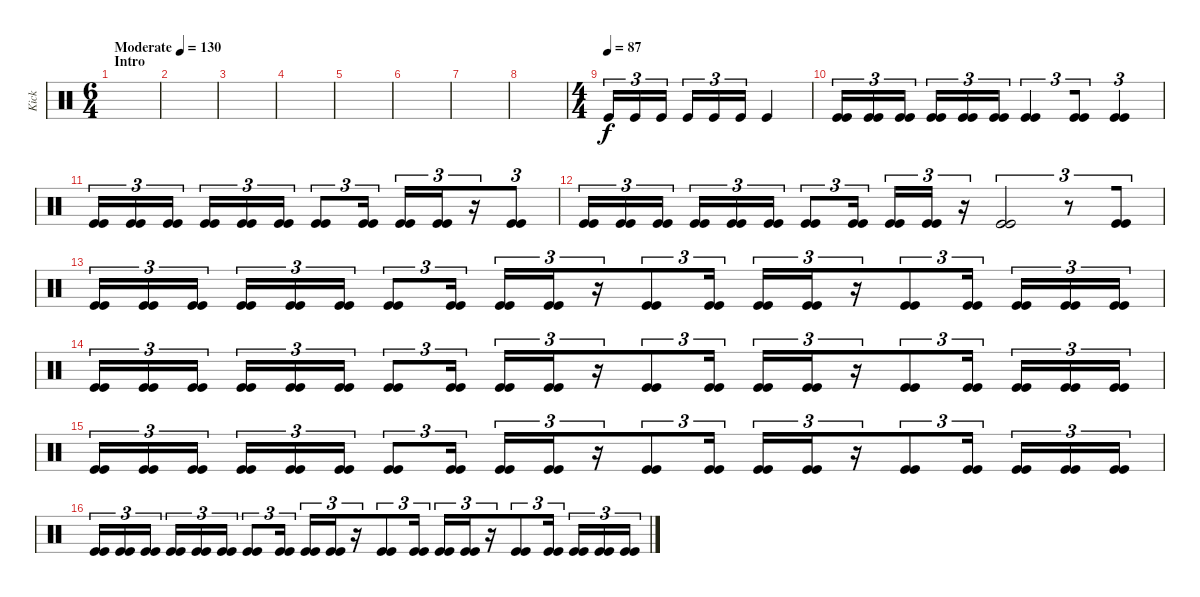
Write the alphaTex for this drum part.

\track ("Kick" "Kick") {instrument percussion bank 158}
\staff {score}
\articulation defaults
\ts (6 4)
\section ("" "Intro")
\tempo (130 "Moderate")
\clef neutral
\ks c
|
|
|
|
|
|
|
|
\ts (4 4)
\tempo (87)
"Kick (hit)".16{tu (3 2)} "Kick (hit)".16{tu (3 2) beam merge} "Kick (hit)".16{tu (3 2) beam splitsecondary} "Kick (hit)".16{tu (3 2)} "Kick (hit)".16{tu (3 2)} "Kick (hit)".16{tu (3 2)} "Kick (hit)".4 |
("Kick (hit)" "Kick (hit)").16{tu (3 2)} ("Kick (hit)" "Kick (hit)").16{tu (3 2) beam merge} ("Kick (hit)" "Kick (hit)").16{tu (3 2) beam splitsecondary} ("Kick (hit)" "Kick (hit)").16{tu (3 2)} ("Kick (hit)" "Kick (hit)").16{tu (3 2)} ("Kick (hit)" "Kick (hit)").16{tu (3 2)} ("Kick (hit)" "Kick (hit)").4{tu (3 2) beam merge} ("Kick (hit)" "Kick (hit)").8{tu (3 2)} ("Kick (hit)" "Kick (hit)").4{tu (3 2)} |
("Kick (hit)" "Kick (hit)").16{tu (3 2)} ("Kick (hit)" "Kick (hit)").16{tu (3 2) beam merge} ("Kick (hit)" "Kick (hit)").16{tu (3 2) beam splitsecondary} ("Kick (hit)" "Kick (hit)").16{tu (3 2)} ("Kick (hit)" "Kick (hit)").16{tu (3 2)} ("Kick (hit)" "Kick (hit)").16{tu (3 2)} ("Kick (hit)" "Kick (hit)").8{tu (3 2) beam merge} ("Kick (hit)" "Kick (hit)").16{tu (3 2) beam splitsecondary} ("Kick (hit)" "Kick (hit)").16{tu (3 2) beam merge} ("Kick (hit)" "Kick (hit)").16{tu (3 2) beam merge} r.16{tu (3 2) beam merge} ("Kick (hit)" "Kick (hit)").8{tu (3 2)} |
("Kick (hit)" "Kick (hit)").16{tu (3 2)} ("Kick (hit)" "Kick (hit)").16{tu (3 2) beam merge} ("Kick (hit)" "Kick (hit)").16{tu (3 2) beam splitsecondary} ("Kick (hit)" "Kick (hit)").16{tu (3 2)} ("Kick (hit)" "Kick (hit)").16{tu (3 2)} ("Kick (hit)" "Kick (hit)").16{tu (3 2)} ("Kick (hit)" "Kick (hit)").8{tu (3 2) beam merge} ("Kick (hit)" "Kick (hit)").16{tu (3 2) beam splitsecondary} ("Kick (hit)" "Kick (hit)").16{tu (3 2) beam merge} ("Kick (hit)" "Kick (hit)").16{tu (3 2) beam merge} r.16{tu (3 2) beam merge} ("Kick (hit)" "Kick (hit)").2{tu (3 2) beam merge} r.8{tu (3 2)} ("Kick (hit)" "Kick (hit)").8{tu (3 2)} |
("Kick (hit)" "Kick (hit)").16{tu (3 2)} ("Kick (hit)" "Kick (hit)").16{tu (3 2) beam merge} ("Kick (hit)" "Kick (hit)").16{tu (3 2) beam splitsecondary} ("Kick (hit)" "Kick (hit)").16{tu (3 2)} ("Kick (hit)" "Kick (hit)").16{tu (3 2)} ("Kick (hit)" "Kick (hit)").16{tu (3 2)} ("Kick (hit)" "Kick (hit)").8{tu (3 2) beam merge} ("Kick (hit)" "Kick (hit)").16{tu (3 2) beam splitsecondary} ("Kick (hit)" "Kick (hit)").16{tu (3 2) beam merge} ("Kick (hit)" "Kick (hit)").16{tu (3 2) beam merge} r.16{tu (3 2) beam merge} ("Kick (hit)" "Kick (hit)").8{tu (3 2) beam merge} ("Kick (hit)" "Kick (hit)").16{tu (3 2) beam splitsecondary} ("Kick (hit)" "Kick (hit)").16{tu (3 2) beam merge} ("Kick (hit)" "Kick (hit)").16{tu (3 2) beam merge} r.16{tu (3 2)} ("Kick (hit)" "Kick (hit)").8{tu (3 2) beam merge} ("Kick (hit)" "Kick (hit)").16{tu (3 2) beam splitsecondary} ("Kick (hit)" "Kick (hit)").16{tu (3 2) beam merge} ("Kick (hit)" "Kick (hit)").16{tu (3 2) beam merge} ("Kick (hit)" "Kick (hit)").16{tu (3 2)} |
("Kick (hit)" "Kick (hit)").16{tu (3 2)} ("Kick (hit)" "Kick (hit)").16{tu (3 2) beam merge} ("Kick (hit)" "Kick (hit)").16{tu (3 2) beam splitsecondary} ("Kick (hit)" "Kick (hit)").16{tu (3 2)} ("Kick (hit)" "Kick (hit)").16{tu (3 2)} ("Kick (hit)" "Kick (hit)").16{tu (3 2)} ("Kick (hit)" "Kick (hit)").8{tu (3 2) beam merge} ("Kick (hit)" "Kick (hit)").16{tu (3 2) beam splitsecondary} ("Kick (hit)" "Kick (hit)").16{tu (3 2) beam merge} ("Kick (hit)" "Kick (hit)").16{tu (3 2) beam merge} r.16{tu (3 2) beam merge} ("Kick (hit)" "Kick (hit)").8{tu (3 2) beam merge} ("Kick (hit)" "Kick (hit)").16{tu (3 2) beam splitsecondary} ("Kick (hit)" "Kick (hit)").16{tu (3 2) beam merge} ("Kick (hit)" "Kick (hit)").16{tu (3 2) beam merge} r.16{tu (3 2)} ("Kick (hit)" "Kick (hit)").8{tu (3 2) beam merge} ("Kick (hit)" "Kick (hit)").16{tu (3 2) beam splitsecondary} ("Kick (hit)" "Kick (hit)").16{tu (3 2) beam merge} ("Kick (hit)" "Kick (hit)").16{tu (3 2) beam merge} ("Kick (hit)" "Kick (hit)").16{tu (3 2)} |
("Kick (hit)" "Kick (hit)").16{tu (3 2)} ("Kick (hit)" "Kick (hit)").16{tu (3 2) beam merge} ("Kick (hit)" "Kick (hit)").16{tu (3 2) beam splitsecondary} ("Kick (hit)" "Kick (hit)").16{tu (3 2)} ("Kick (hit)" "Kick (hit)").16{tu (3 2)} ("Kick (hit)" "Kick (hit)").16{tu (3 2)} ("Kick (hit)" "Kick (hit)").8{tu (3 2) beam merge} ("Kick (hit)" "Kick (hit)").16{tu (3 2) beam splitsecondary} ("Kick (hit)" "Kick (hit)").16{tu (3 2) beam merge} ("Kick (hit)" "Kick (hit)").16{tu (3 2) beam merge} r.16{tu (3 2) beam merge} ("Kick (hit)" "Kick (hit)").8{tu (3 2) beam merge} ("Kick (hit)" "Kick (hit)").16{tu (3 2) beam splitsecondary} ("Kick (hit)" "Kick (hit)").16{tu (3 2) beam merge} ("Kick (hit)" "Kick (hit)").16{tu (3 2) beam merge} r.16{tu (3 2)} ("Kick (hit)" "Kick (hit)").8{tu (3 2) beam merge} ("Kick (hit)" "Kick (hit)").16{tu (3 2) beam splitsecondary} ("Kick (hit)" "Kick (hit)").16{tu (3 2) beam merge} ("Kick (hit)" "Kick (hit)").16{tu (3 2) beam merge} ("Kick (hit)" "Kick (hit)").16{tu (3 2)} |
("Kick (hit)" "Kick (hit)").16{tu (3 2)} ("Kick (hit)" "Kick (hit)").16{tu (3 2) beam merge} ("Kick (hit)" "Kick (hit)").16{tu (3 2) beam splitsecondary} ("Kick (hit)" "Kick (hit)").16{tu (3 2)} ("Kick (hit)" "Kick (hit)").16{tu (3 2)} ("Kick (hit)" "Kick (hit)").16{tu (3 2)} ("Kick (hit)" "Kick (hit)").8{tu (3 2) beam merge} ("Kick (hit)" "Kick (hit)").16{tu (3 2) beam splitsecondary} ("Kick (hit)" "Kick (hit)").16{tu (3 2) beam merge} ("Kick (hit)" "Kick (hit)").16{tu (3 2) beam merge} r.16{tu (3 2) beam merge} ("Kick (hit)" "Kick (hit)").8{tu (3 2) beam merge} ("Kick (hit)" "Kick (hit)").16{tu (3 2) beam splitsecondary} ("Kick (hit)" "Kick (hit)").16{tu (3 2) beam merge} ("Kick (hit)" "Kick (hit)").16{tu (3 2) beam merge} r.16{tu (3 2)} ("Kick (hit)" "Kick (hit)").8{tu (3 2) beam merge} ("Kick (hit)" "Kick (hit)").16{tu (3 2) beam splitsecondary} ("Kick (hit)" "Kick (hit)").16{tu (3 2) beam merge} ("Kick (hit)" "Kick (hit)").16{tu (3 2) beam merge} ("Kick (hit)" "Kick (hit)").16{tu (3 2)}
